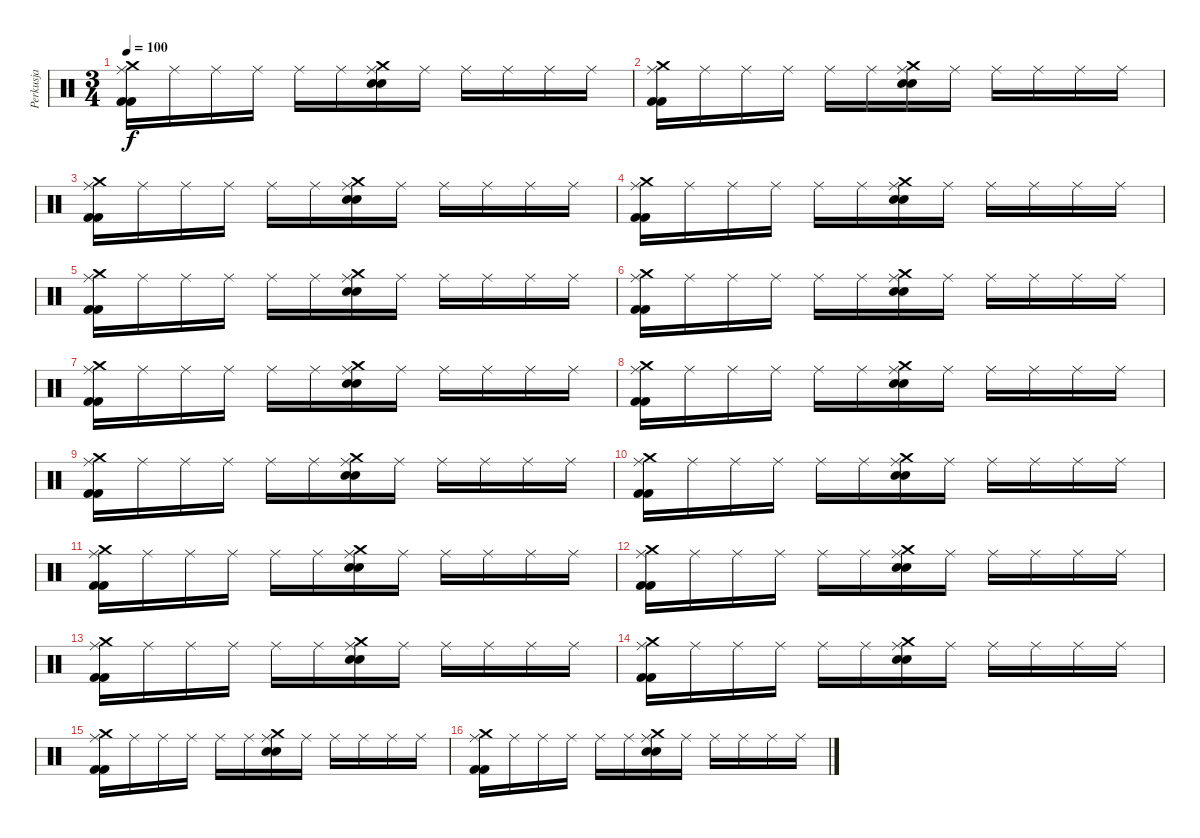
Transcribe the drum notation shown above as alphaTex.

\track ("Perkusja" "Perkusja") {instrument percussion}
\staff {score}
\articulation defaults
\ts (3 4)
\tempo 100
\clef neutral
\ks c
("Crash medium (hit)" "Ride (middle)" "Kick (hit) 2" "Kick (hit) 2").16{dy f} "Ride (middle)".16 "Ride (middle)".16 "Ride (middle)".16 "Ride (middle)".16 "Ride (middle)".16 ("Crash medium (hit)" "Ride (middle)" "Snare (hit) 2" "Snare (hit) 2").16 "Ride (middle)".16 "Ride (middle)".16 "Ride (middle)".16 "Ride (middle)".16 "Ride (middle)".16 |
("Crash medium (hit)" "Ride (middle)" "Kick (hit) 2" "Kick (hit) 2").16 "Ride (middle)".16 "Ride (middle)".16 "Ride (middle)".16 "Ride (middle)".16 "Ride (middle)".16 ("Crash medium (hit)" "Ride (middle)" "Snare (hit) 2" "Snare (hit) 2").16 "Ride (middle)".16 "Ride (middle)".16 "Ride (middle)".16 "Ride (middle)".16 "Ride (middle)".16 |
("Crash medium (hit)" "Ride (middle)" "Kick (hit) 2" "Kick (hit) 2").16 "Ride (middle)".16 "Ride (middle)".16 "Ride (middle)".16 "Ride (middle)".16 "Ride (middle)".16 ("Crash medium (hit)" "Ride (middle)" "Snare (hit) 2" "Snare (hit) 2").16 "Ride (middle)".16 "Ride (middle)".16 "Ride (middle)".16 "Ride (middle)".16 "Ride (middle)".16 |
("Crash medium (hit)" "Ride (middle)" "Kick (hit) 2" "Kick (hit) 2").16 "Ride (middle)".16 "Ride (middle)".16 "Ride (middle)".16 "Ride (middle)".16 "Ride (middle)".16 ("Crash medium (hit)" "Ride (middle)" "Snare (hit) 2" "Snare (hit) 2").16 "Ride (middle)".16 "Ride (middle)".16 "Ride (middle)".16 "Ride (middle)".16 "Ride (middle)".16 |
("Crash medium (hit)" "Ride (middle)" "Kick (hit) 2" "Kick (hit) 2").16 "Ride (middle)".16 "Ride (middle)".16 "Ride (middle)".16 "Ride (middle)".16 "Ride (middle)".16 ("Crash medium (hit)" "Ride (middle)" "Snare (hit) 2" "Snare (hit) 2").16 "Ride (middle)".16 "Ride (middle)".16 "Ride (middle)".16 "Ride (middle)".16 "Ride (middle)".16 |
("Crash medium (hit)" "Ride (middle)" "Kick (hit) 2" "Kick (hit) 2").16 "Ride (middle)".16 "Ride (middle)".16 "Ride (middle)".16 "Ride (middle)".16 "Ride (middle)".16 ("Crash medium (hit)" "Ride (middle)" "Snare (hit) 2" "Snare (hit) 2").16 "Ride (middle)".16 "Ride (middle)".16 "Ride (middle)".16 "Ride (middle)".16 "Ride (middle)".16 |
("Crash medium (hit)" "Ride (middle)" "Kick (hit) 2" "Kick (hit) 2").16 "Ride (middle)".16 "Ride (middle)".16 "Ride (middle)".16 "Ride (middle)".16 "Ride (middle)".16 ("Crash medium (hit)" "Ride (middle)" "Snare (hit) 2" "Snare (hit) 2").16 "Ride (middle)".16 "Ride (middle)".16 "Ride (middle)".16 "Ride (middle)".16 "Ride (middle)".16 |
("Crash medium (hit)" "Ride (middle)" "Kick (hit) 2" "Kick (hit) 2").16 "Ride (middle)".16 "Ride (middle)".16 "Ride (middle)".16 "Ride (middle)".16 "Ride (middle)".16 ("Crash medium (hit)" "Ride (middle)" "Snare (hit) 2" "Snare (hit) 2").16 "Ride (middle)".16 "Ride (middle)".16 "Ride (middle)".16 "Ride (middle)".16 "Ride (middle)".16 |
("Crash medium (hit)" "Ride (middle)" "Kick (hit) 2" "Kick (hit) 2").16 "Ride (middle)".16 "Ride (middle)".16 "Ride (middle)".16 "Ride (middle)".16 "Ride (middle)".16 ("Crash medium (hit)" "Ride (middle)" "Snare (hit) 2" "Snare (hit) 2").16 "Ride (middle)".16 "Ride (middle)".16 "Ride (middle)".16 "Ride (middle)".16 "Ride (middle)".16 |
("Crash medium (hit)" "Ride (middle)" "Kick (hit) 2" "Kick (hit) 2").16 "Ride (middle)".16 "Ride (middle)".16 "Ride (middle)".16 "Ride (middle)".16 "Ride (middle)".16 ("Crash medium (hit)" "Ride (middle)" "Snare (hit) 2" "Snare (hit) 2").16 "Ride (middle)".16 "Ride (middle)".16 "Ride (middle)".16 "Ride (middle)".16 "Ride (middle)".16 |
("Crash medium (hit)" "Ride (middle)" "Kick (hit) 2" "Kick (hit) 2").16 "Ride (middle)".16 "Ride (middle)".16 "Ride (middle)".16 "Ride (middle)".16 "Ride (middle)".16 ("Crash medium (hit)" "Ride (middle)" "Snare (hit) 2" "Snare (hit) 2").16 "Ride (middle)".16 "Ride (middle)".16 "Ride (middle)".16 "Ride (middle)".16 "Ride (middle)".16 |
("Crash medium (hit)" "Ride (middle)" "Kick (hit) 2" "Kick (hit) 2").16 "Ride (middle)".16 "Ride (middle)".16 "Ride (middle)".16 "Ride (middle)".16 "Ride (middle)".16 ("Crash medium (hit)" "Ride (middle)" "Snare (hit) 2" "Snare (hit) 2").16 "Ride (middle)".16 "Ride (middle)".16 "Ride (middle)".16 "Ride (middle)".16 "Ride (middle)".16 |
("Crash medium (hit)" "Ride (middle)" "Kick (hit) 2" "Kick (hit) 2").16 "Ride (middle)".16 "Ride (middle)".16 "Ride (middle)".16 "Ride (middle)".16 "Ride (middle)".16 ("Crash medium (hit)" "Ride (middle)" "Snare (hit) 2" "Snare (hit) 2").16 "Ride (middle)".16 "Ride (middle)".16 "Ride (middle)".16 "Ride (middle)".16 "Ride (middle)".16 |
("Crash medium (hit)" "Ride (middle)" "Kick (hit) 2" "Kick (hit) 2").16 "Ride (middle)".16 "Ride (middle)".16 "Ride (middle)".16 "Ride (middle)".16 "Ride (middle)".16 ("Crash medium (hit)" "Ride (middle)" "Snare (hit) 2" "Snare (hit) 2").16 "Ride (middle)".16 "Ride (middle)".16 "Ride (middle)".16 "Ride (middle)".16 "Ride (middle)".16 |
("Crash medium (hit)" "Ride (middle)" "Kick (hit) 2" "Kick (hit) 2").16 "Ride (middle)".16 "Ride (middle)".16 "Ride (middle)".16 "Ride (middle)".16 "Ride (middle)".16 ("Crash medium (hit)" "Ride (middle)" "Snare (hit) 2" "Snare (hit) 2").16 "Ride (middle)".16 "Ride (middle)".16 "Ride (middle)".16 "Ride (middle)".16 "Ride (middle)".16 |
("Crash medium (hit)" "Ride (middle)" "Kick (hit) 2" "Kick (hit) 2").16 "Ride (middle)".16 "Ride (middle)".16 "Ride (middle)".16 "Ride (middle)".16 "Ride (middle)".16 ("Crash medium (hit)" "Ride (middle)" "Snare (hit) 2" "Snare (hit) 2").16 "Ride (middle)".16 "Ride (middle)".16 "Ride (middle)".16 "Ride (middle)".16 "Ride (middle)".16
